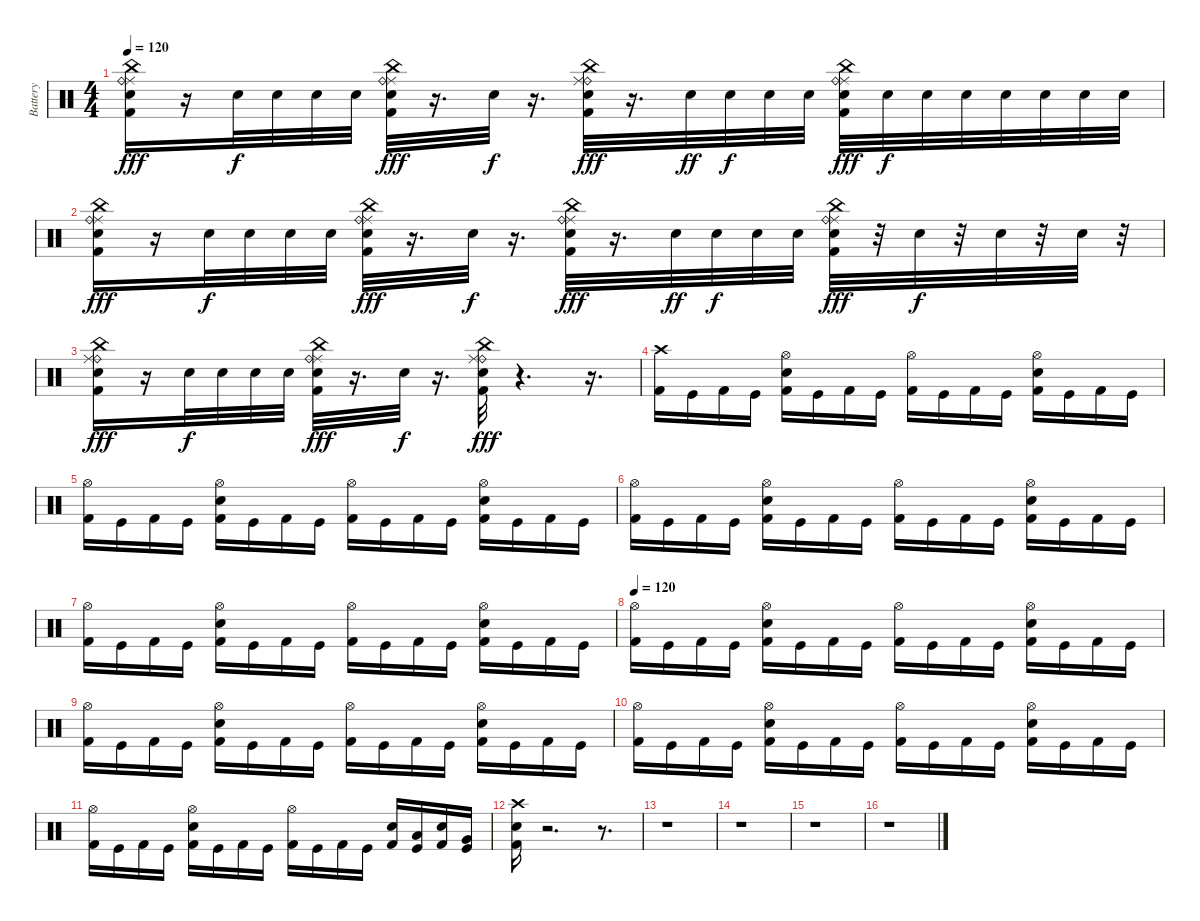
\track ("Battery" "Battery") {instrument percussion}
\staff {score}
\articulation defaults
\ts (4 4)
\tempo 120
\clef neutral
\ks c
("Ride (middle)" "China (hit)" "Ride (bell)" "Electric Snare (hit)" "Kick (hit) 2").16{dy fff} r.16 "Electric Snare (hit)".32{dy f} "Electric Snare (hit)".32 "Electric Snare (hit)".32 "Electric Snare (hit)".32 ("China (hit)" "Ride (middle)" "Electric Snare (hit)" "Ride (bell)" "Kick (hit) 2").32{dy fff} r.16{d} "Electric Snare (hit)".32{dy f} r.16{d} ("China (hit)" "Ride (bell)" "Ride (middle)" "Electric Snare (hit)" "Kick (hit) 2").32{dy fff} r.16{d} "Electric Snare (hit)".32{dy ff} "Electric Snare (hit)".32{dy f} "Electric Snare (hit)".32 "Electric Snare (hit)".32 ("Electric Snare (hit)" "Ride (middle)" "China (hit)" "Ride (bell)" "Kick (hit) 2").32{dy fff} "Electric Snare (hit)".32{dy f} "Electric Snare (hit)".32 "Electric Snare (hit)".32 "Electric Snare (hit)".32 "Electric Snare (hit)".32 "Electric Snare (hit)".32 "Electric Snare (hit)".32 |
("China (hit)" "Ride (middle)" "Electric Snare (hit)" "Ride (bell)" "Kick (hit) 2").16{dy fff} r.16 "Electric Snare (hit)".32{dy f} "Electric Snare (hit)".32 "Electric Snare (hit)".32 "Electric Snare (hit)".32 ("Electric Snare (hit)" "Ride (middle)" "Ride (bell)" "China (hit)" "Kick (hit) 2").32{dy fff} r.16{d} "Electric Snare (hit)".32{dy f} r.16{d} ("Electric Snare (hit)" "Ride (middle)" "China (hit)" "Ride (bell)" "Kick (hit) 2").32{dy fff} r.16{d} "Electric Snare (hit)".32{dy ff} "Electric Snare (hit)".32{dy f} "Electric Snare (hit)".32 "Electric Snare (hit)".32 ("Ride (middle)" "Electric Snare (hit)" "China (hit)" "Ride (bell)" "Kick (hit) 2").32{dy fff} r.32 "Electric Snare (hit)".32{dy f} r.32 "Electric Snare (hit)".32 r.32 "Electric Snare (hit)".32 r.32 |
("Ride (bell)" "China (hit)" "Ride (middle)" "Electric Snare (hit)" "Kick (hit) 2").16{dy fff} r.16 "Electric Snare (hit)".32{dy f} "Electric Snare (hit)".32 "Electric Snare (hit)".32 "Electric Snare (hit)".32 ("Ride (middle)" "Ride (bell)" "Electric Snare (hit)" "China (hit)" "Kick (hit) 2").32{dy fff} r.16{d} "Electric Snare (hit)".32{dy f} r.16{d} ("Ride (bell)" "Ride (middle)" "China (hit)" "Electric Snare (hit)" "Kick (hit) 2").32{dy fff} r.4{d} r.16{d} |
("Crash high (hit)" "Kick (hit) 2").16 "Kick (hit)".16 "Kick (hit) 2".16 "Kick (hit)".16 ("Electric Snare (hit)" "Hi-Hat (open)" "Kick (hit) 2").16 "Kick (hit)".16 "Kick (hit) 2".16 "Kick (hit)".16 ("Hi-Hat (open)" "Kick (hit) 2").16 "Kick (hit)".16 "Kick (hit) 2".16 "Kick (hit)".16 ("Hi-Hat (open)" "Electric Snare (hit)" "Kick (hit) 2").16 "Kick (hit)".16 "Kick (hit) 2".16 "Kick (hit)".16 |
("Hi-Hat (open)" "Kick (hit) 2").16 "Kick (hit)".16 "Kick (hit) 2".16 "Kick (hit)".16 ("Hi-Hat (open)" "Electric Snare (hit)" "Kick (hit) 2").16 "Kick (hit)".16 "Kick (hit) 2".16 "Kick (hit)".16 ("Hi-Hat (open)" "Kick (hit) 2").16 "Kick (hit)".16 "Kick (hit) 2".16 "Kick (hit)".16 ("Hi-Hat (open)" "Electric Snare (hit)" "Kick (hit) 2").16 "Kick (hit)".16 "Kick (hit) 2".16 "Kick (hit)".16 |
("Hi-Hat (open)" "Kick (hit) 2").16 "Kick (hit)".16 "Kick (hit) 2".16 "Kick (hit)".16 ("Electric Snare (hit)" "Hi-Hat (open)" "Kick (hit) 2").16 "Kick (hit)".16 "Kick (hit) 2".16 "Kick (hit)".16 ("Hi-Hat (open)" "Kick (hit) 2").16 "Kick (hit)".16 "Kick (hit) 2".16 "Kick (hit)".16 ("Electric Snare (hit)" "Hi-Hat (open)" "Kick (hit) 2").16 "Kick (hit)".16 "Kick (hit) 2".16 "Kick (hit)".16 |
("Hi-Hat (open)" "Kick (hit) 2").16 "Kick (hit)".16 "Kick (hit) 2".16 "Kick (hit)".16 ("Electric Snare (hit)" "Hi-Hat (open)" "Kick (hit) 2").16 "Kick (hit)".16 "Kick (hit) 2".16 "Kick (hit)".16 ("Hi-Hat (open)" "Kick (hit) 2").16 "Kick (hit)".16 "Kick (hit) 2".16 "Kick (hit)".16 ("Hi-Hat (open)" "Electric Snare (hit)" "Kick (hit) 2").16 "Kick (hit)".16 "Kick (hit) 2".16 "Kick (hit)".16 |
\tempo 120
("Hi-Hat (open)" "Kick (hit) 2").16 "Kick (hit)".16 "Kick (hit) 2".16 "Kick (hit)".16 ("Electric Snare (hit)" "Hi-Hat (open)" "Kick (hit) 2").16 "Kick (hit)".16 "Kick (hit) 2".16 "Kick (hit)".16 ("Hi-Hat (open)" "Kick (hit) 2").16 "Kick (hit)".16 "Kick (hit) 2".16 "Kick (hit)".16 ("Hi-Hat (open)" "Electric Snare (hit)" "Kick (hit) 2").16 "Kick (hit)".16 "Kick (hit) 2".16 "Kick (hit)".16 |
("Hi-Hat (open)" "Kick (hit) 2").16 "Kick (hit)".16 "Kick (hit) 2".16 "Kick (hit)".16 ("Electric Snare (hit)" "Hi-Hat (open)" "Kick (hit) 2").16 "Kick (hit)".16 "Kick (hit) 2".16 "Kick (hit)".16 ("Hi-Hat (open)" "Kick (hit) 2").16 "Kick (hit)".16 "Kick (hit) 2".16 "Kick (hit)".16 ("Electric Snare (hit)" "Hi-Hat (open)" "Kick (hit) 2").16 "Kick (hit)".16 "Kick (hit) 2".16 "Kick (hit)".16 |
("Hi-Hat (open)" "Kick (hit) 2").16 "Kick (hit)".16 "Kick (hit) 2".16 "Kick (hit)".16 ("Electric Snare (hit)" "Hi-Hat (open)" "Kick (hit) 2").16 "Kick (hit)".16 "Kick (hit) 2".16 "Kick (hit)".16 ("Hi-Hat (open)" "Kick (hit) 2").16 "Kick (hit)".16 "Kick (hit) 2".16 "Kick (hit)".16 ("Electric Snare (hit)" "Hi-Hat (open)" "Kick (hit) 2").16 "Kick (hit)".16 "Kick (hit) 2".16 "Kick (hit)".16 |
("Hi-Hat (open)" "Kick (hit) 2").16 "Kick (hit)".16 "Kick (hit) 2".16 "Kick (hit)".16 ("Hi-Hat (open)" "Electric Snare (hit)" "Kick (hit) 2").16 "Kick (hit)".16 "Kick (hit) 2".16 "Kick (hit)".16 ("Hi-Hat (open)" "Kick (hit) 2").16 "Kick (hit)".16 "Kick (hit) 2".16 "Kick (hit)".16 ("Electric Snare (hit)" "Kick (hit) 2").16 ("Low Tom (hit)" "Kick (hit)").16 ("Electric Snare (hit)" "Kick (hit) 2").16 ("Very Low Tom (hit)" "Kick (hit)").16 |
("Crash high (hit)" "Electric Snare (hit)" "Kick (hit) 2").16 r.2{d} r.8{d} |
r.1 |
r.1 |
r.1 |
r.1
